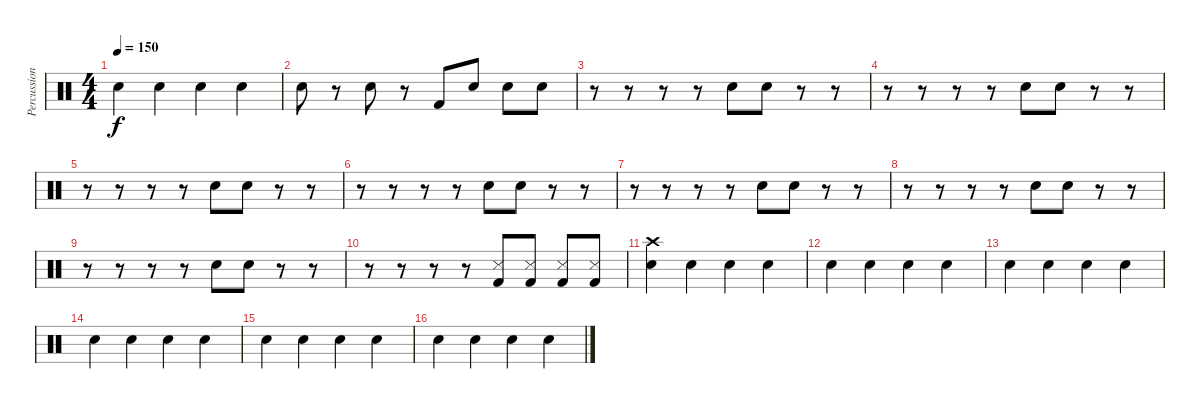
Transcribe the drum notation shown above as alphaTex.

\track ("Percussion" "Percussion") {instrument percussion}
\staff {score}
\articulation defaults
\ts (4 4)
\tempo 150
\clef neutral
\ks c "Electric Snare (hit)".4{dy f} "Electric Snare (hit)".4 "Electric Snare (hit)".4 "Electric Snare (hit)".4
|
"Electric Snare (hit)".8 r.8 "Electric Snare (hit)".8 r.8 "Kick (hit) 2".8 "Electric Snare (hit)".8 "Electric Snare (hit)".8 "Electric Snare (hit)".8 |
r.8 r.8 r.8 r.8 "Electric Snare (hit)".8 "Electric Snare (hit)".8 r.8 r.8 |
r.8 r.8 r.8 r.8 "Electric Snare (hit)".8 "Electric Snare (hit)".8 r.8 r.8 |
r.8 r.8 r.8 r.8 "Electric Snare (hit)".8 "Electric Snare (hit)".8 r.8 r.8 |
r.8 r.8 r.8 r.8 "Electric Snare (hit)".8 "Electric Snare (hit)".8 r.8 r.8 |
r.8 r.8 r.8 r.8 "Electric Snare (hit)".8 "Electric Snare (hit)".8 r.8 r.8 |
r.8 r.8 r.8 r.8 "Electric Snare (hit)".8 "Electric Snare (hit)".8 r.8 r.8 |
r.8 r.8 r.8 r.8 "Electric Snare (hit)".8 "Electric Snare (hit)".8 r.8 r.8 |
r.8 r.8 r.8 r.8 ("Snare (side stick) 3" "Kick (hit) 2").8 ("Snare (side stick) 3" "Kick (hit) 2").8 ("Snare (side stick) 3" "Kick (hit) 2").8 ("Snare (side stick) 3" "Kick (hit) 2").8 |
("Electric Snare (hit)" "Crash high (hit)").4 "Electric Snare (hit)".4 "Electric Snare (hit)".4 "Electric Snare (hit)".4 |
"Electric Snare (hit)".4 "Electric Snare (hit)".4 "Electric Snare (hit)".4 "Electric Snare (hit)".4 |
"Electric Snare (hit)".4 "Electric Snare (hit)".4 "Electric Snare (hit)".4 "Electric Snare (hit)".4 |
"Electric Snare (hit)".4 "Electric Snare (hit)".4 "Electric Snare (hit)".4 "Electric Snare (hit)".4 |
"Electric Snare (hit)".4 "Electric Snare (hit)".4 "Electric Snare (hit)".4 "Electric Snare (hit)".4 |
"Electric Snare (hit)".4 "Electric Snare (hit)".4 "Electric Snare (hit)".4 "Electric Snare (hit)".4
